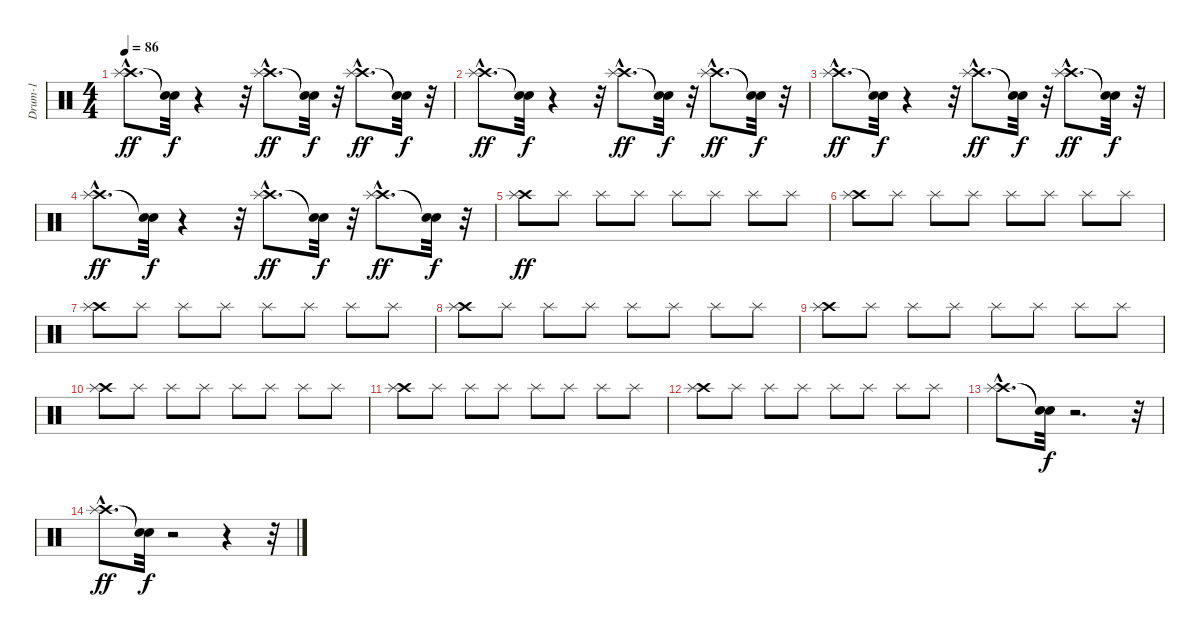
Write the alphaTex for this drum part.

\track ("Drum-1" "Drum-1") {instrument percussion}
\staff {score}
\articulation defaults
\ts (4 4)
\tempo 86
\clef neutral
\ks c
("Crash high (hit)"{hac} "Splash (hit)"{hac}).8{d dy ff} ("Snare (hit)"{t} "Snare (hit)"{t}).32{dy f} r.4 r.32 ("Crash high (hit)"{hac} "Splash (hit)"{hac}).8{d dy ff} ("Snare (hit)"{t} "Snare (hit)"{t}).32{dy f} r.32 ("Crash high (hit)"{hac} "Splash (hit)"{hac}).8{d dy ff} ("Snare (hit)"{t} "Snare (hit)"{t}).32{dy f} r.32 |
("Crash high (hit)"{hac} "Splash (hit)"{hac}).8{d dy ff} ("Snare (hit)"{t} "Snare (hit)"{t}).32{dy f} r.4 r.32 ("Crash high (hit)"{hac} "Splash (hit)"{hac}).8{d dy ff} ("Snare (hit)"{t} "Snare (hit)"{t}).32{dy f} r.32 ("Crash high (hit)"{hac} "Splash (hit)"{hac}).8{d dy ff} ("Snare (hit)"{t} "Snare (hit)"{t}).32{dy f} r.32 |
("Crash high (hit)"{hac} "Splash (hit)"{hac}).8{d dy ff} ("Snare (hit)"{t} "Snare (hit)"{t}).32{dy f} r.4 r.32 ("Crash high (hit)"{hac} "Splash (hit)"{hac}).8{d dy ff} ("Snare (hit)"{t} "Snare (hit)"{t}).32{dy f} r.32 ("Crash high (hit)"{hac} "Splash (hit)"{hac}).8{d dy ff} ("Snare (hit)"{t} "Snare (hit)"{t}).32{dy f} r.32 |
("Crash high (hit)"{hac} "Splash (hit)"{hac}).8{d dy ff} ("Snare (hit)"{t} "Snare (hit)"{t}).32{dy f} r.4 r.32 ("Crash high (hit)"{hac} "Splash (hit)"{hac}).8{d dy ff} ("Snare (hit)"{t} "Snare (hit)"{t}).32{dy f} r.32 ("Crash high (hit)"{hac} "Splash (hit)"{hac}).8{d dy ff} ("Snare (hit)"{t} "Snare (hit)"{t}).32{dy f} r.32 |
("Crash high (hit)" "Splash (hit)").8{dy ff} "Splash (hit)".8 "Splash (hit)".8 "Splash (hit)".8 "Splash (hit)".8 "Splash (hit)".8 "Splash (hit)".8 "Splash (hit)".8 |
("Crash high (hit)" "Splash (hit)").8 "Splash (hit)".8 "Splash (hit)".8 "Splash (hit)".8 "Splash (hit)".8 "Splash (hit)".8 "Splash (hit)".8 "Splash (hit)".8 |
("Crash high (hit)" "Splash (hit)").8 "Splash (hit)".8 "Splash (hit)".8 "Splash (hit)".8 "Splash (hit)".8 "Splash (hit)".8 "Splash (hit)".8 "Splash (hit)".8 |
("Crash high (hit)" "Splash (hit)").8 "Splash (hit)".8 "Splash (hit)".8 "Splash (hit)".8 "Splash (hit)".8 "Splash (hit)".8 "Splash (hit)".8 "Splash (hit)".8 |
("Crash high (hit)" "Splash (hit)").8 "Splash (hit)".8 "Splash (hit)".8 "Splash (hit)".8 "Splash (hit)".8 "Splash (hit)".8 "Splash (hit)".8 "Splash (hit)".8 |
("Crash high (hit)" "Splash (hit)").8 "Splash (hit)".8 "Splash (hit)".8 "Splash (hit)".8 "Splash (hit)".8 "Splash (hit)".8 "Splash (hit)".8 "Splash (hit)".8 |
("Crash high (hit)" "Splash (hit)").8 "Splash (hit)".8 "Splash (hit)".8 "Splash (hit)".8 "Splash (hit)".8 "Splash (hit)".8 "Splash (hit)".8 "Splash (hit)".8 |
("Crash high (hit)" "Splash (hit)").8 "Splash (hit)".8 "Splash (hit)".8 "Splash (hit)".8 "Splash (hit)".8 "Splash (hit)".8 "Splash (hit)".8 "Splash (hit)".8 |
("Crash high (hit)"{hac} "Splash (hit)"{hac}).8{d} ("Snare (hit)"{t} "Snare (hit)"{t}).32{dy f} r.2{d} r.32 |
("Crash high (hit)"{hac} "Splash (hit)"{hac}).8{d dy ff} ("Snare (hit)"{t} "Snare (hit)"{t}).32{dy f} r.2 r.4 r.32
